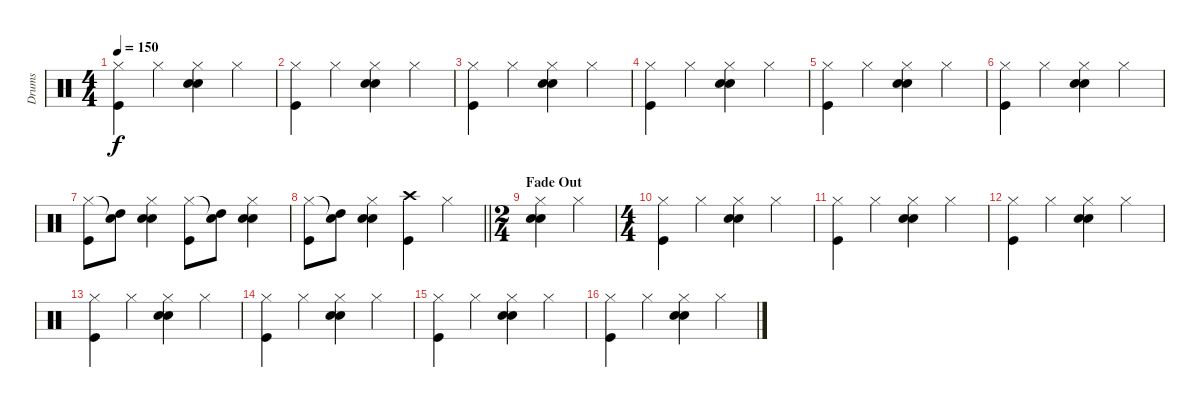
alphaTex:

\track ("Drums" "Drums") {instrument percussion}
\staff {score}
\articulation defaults
\ts (4 4)
\tempo 150
\clef neutral
\ks c
("Hi-Hat (closed)" "Kick (hit)").4{dy f} "Hi-Hat (closed)".4 ("Hi-Hat (closed)" "Hand Clap (hit)" "Snare (hit) 2").4 "Hi-Hat (closed)".4 |
("Hi-Hat (closed)" "Kick (hit)").4 "Hi-Hat (closed)".4 ("Hi-Hat (closed)" "Hand Clap (hit)" "Snare (hit) 2").4 "Hi-Hat (closed)".4 |
("Hi-Hat (closed)" "Kick (hit)").4 "Hi-Hat (closed)".4 ("Hi-Hat (closed)" "Hand Clap (hit)" "Snare (hit) 2").4 "Hi-Hat (closed)".4 |
("Hi-Hat (closed)" "Kick (hit)").4 "Hi-Hat (closed)".4 ("Hi-Hat (closed)" "Hand Clap (hit)" "Snare (hit) 2").4 "Hi-Hat (closed)".4 |
("Hi-Hat (closed)" "Kick (hit)").4 "Hi-Hat (closed)".4 ("Hi-Hat (closed)" "Hand Clap (hit)" "Snare (hit) 2").4 "Hi-Hat (closed)".4 |
("Hi-Hat (closed)" "Kick (hit)").4 "Hi-Hat (closed)".4 ("Hi-Hat (closed)" "Hand Clap (hit)" "Snare (hit) 2").4 "Hi-Hat (closed)".4 |
("Hi-Hat (closed)" "Kick (hit)").8 ("Snare (hit)"{t} "High Tom (hit)").8 ("Hi-Hat (closed)" "Hand Clap (hit)" "Snare (hit) 2").4 ("Hi-Hat (closed)" "Kick (hit)").8 ("Snare (hit)"{t} "High Tom (hit)").8 ("Hi-Hat (closed)" "Hand Clap (hit)" "Snare (hit) 2").4 |
\barLineRight lightlight
("Hi-Hat (closed)" "Kick (hit)").8 ("Snare (hit)"{t} "High Tom (hit)").8 ("Hi-Hat (closed)" "Hand Clap (hit)" "Snare (hit) 2").4 ("Crash high (hit)" "Kick (hit)").4{volume 15} "Hi-Hat (closed)".4 |
\ts (2 4)
\section ("" "Fade Out")
("Hi-Hat (closed)" "Hand Clap (hit)" "Snare (hit) 2").4 "Hi-Hat (closed)".4 |
\ts (4 4)
("Hi-Hat (closed)" "Kick (hit)").4{volume 14} "Hi-Hat (closed)".4 ("Hi-Hat (closed)" "Hand Clap (hit)" "Snare (hit) 2").4 "Hi-Hat (closed)".4 |
("Hi-Hat (closed)" "Kick (hit)").4{volume 13} "Hi-Hat (closed)".4 ("Hi-Hat (closed)" "Hand Clap (hit)" "Snare (hit) 2").4 "Hi-Hat (closed)".4 |
("Hi-Hat (closed)" "Kick (hit)").4{volume 12} "Hi-Hat (closed)".4 ("Hi-Hat (closed)" "Hand Clap (hit)" "Snare (hit) 2").4 "Hi-Hat (closed)".4 |
("Hi-Hat (closed)" "Kick (hit)").4{volume 11} "Hi-Hat (closed)".4 ("Hi-Hat (closed)" "Hand Clap (hit)" "Snare (hit) 2").4 "Hi-Hat (closed)".4 |
("Hi-Hat (closed)" "Kick (hit)").4{volume 10} "Hi-Hat (closed)".4 ("Hi-Hat (closed)" "Hand Clap (hit)" "Snare (hit) 2").4 "Hi-Hat (closed)".4 |
("Hi-Hat (closed)" "Kick (hit)").4{volume 9} "Hi-Hat (closed)".4 ("Hi-Hat (closed)" "Hand Clap (hit)" "Snare (hit) 2").4 "Hi-Hat (closed)".4 |
("Hi-Hat (closed)" "Kick (hit)").4{volume 3} "Hi-Hat (closed)".4 ("Hi-Hat (closed)" "Hand Clap (hit)" "Snare (hit) 2").4 "Hi-Hat (closed)".4
